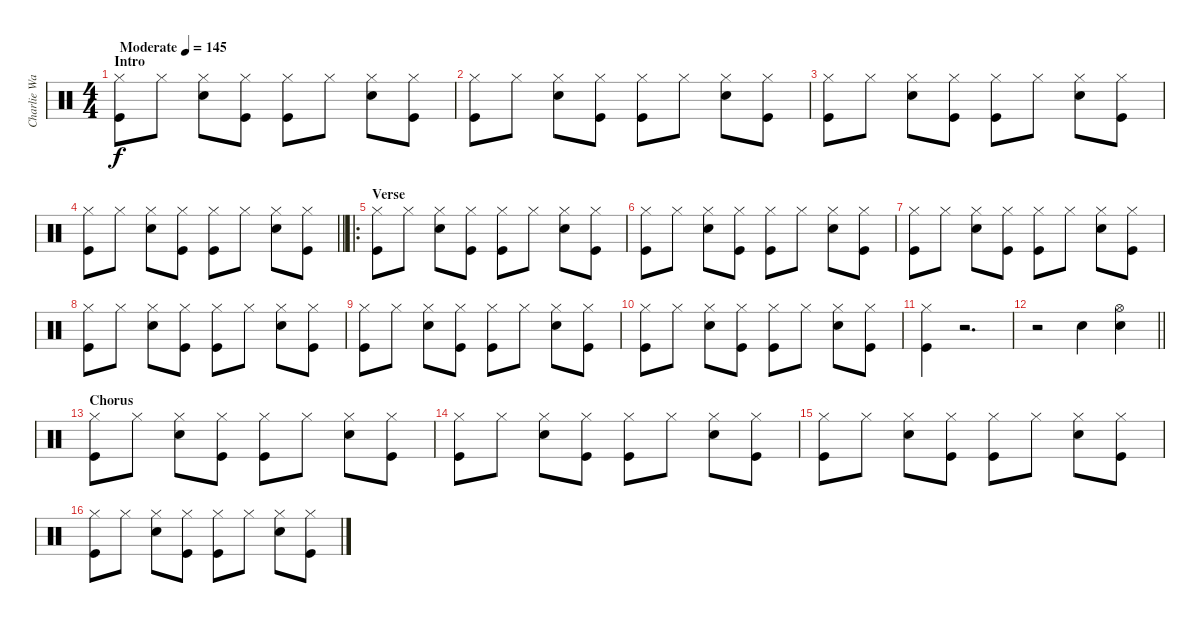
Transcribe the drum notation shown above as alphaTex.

\track ("Charlie Watts" "Charlie Wa") {instrument percussion}
\staff {score}
\articulation defaults
\ts (4 4)
\section ("" "Intro")
\tempo (145 "Moderate")
\clef neutral
\ks c
("Hi-Hat (closed)" "Kick (hit)").8{dy f} "Hi-Hat (closed)".8 ("Hi-Hat (closed)" "Snare (hit) 2").8 ("Hi-Hat (closed)" "Kick (hit)").8 ("Hi-Hat (closed)" "Kick (hit)").8 "Hi-Hat (closed)".8 ("Hi-Hat (closed)" "Snare (hit) 2").8 ("Hi-Hat (closed)" "Kick (hit)").8 |
("Hi-Hat (closed)" "Kick (hit)").8 "Hi-Hat (closed)".8 ("Hi-Hat (closed)" "Snare (hit) 2").8 ("Hi-Hat (closed)" "Kick (hit)").8 ("Hi-Hat (closed)" "Kick (hit)").8 "Hi-Hat (closed)".8 ("Hi-Hat (closed)" "Snare (hit) 2").8 ("Hi-Hat (closed)" "Kick (hit)").8 |
("Hi-Hat (closed)" "Kick (hit)").8 "Hi-Hat (closed)".8 ("Hi-Hat (closed)" "Snare (hit) 2").8 ("Hi-Hat (closed)" "Kick (hit)").8 ("Hi-Hat (closed)" "Kick (hit)").8 "Hi-Hat (closed)".8 ("Hi-Hat (closed)" "Snare (hit) 2").8 ("Hi-Hat (closed)" "Kick (hit)").8 |
\barLineRight lightlight
("Hi-Hat (closed)" "Kick (hit)").8 "Hi-Hat (closed)".8 ("Hi-Hat (closed)" "Snare (hit) 2").8 ("Hi-Hat (closed)" "Kick (hit)").8 ("Hi-Hat (closed)" "Kick (hit)").8 "Hi-Hat (closed)".8 ("Hi-Hat (closed)" "Snare (hit) 2").8 ("Hi-Hat (closed)" "Kick (hit)").8 |
\ro
\section ("" "Verse")
("Hi-Hat (closed)" "Kick (hit)").8 "Hi-Hat (closed)".8 ("Hi-Hat (closed)" "Snare (hit) 2").8 ("Hi-Hat (closed)" "Kick (hit)").8 ("Hi-Hat (closed)" "Kick (hit)").8 "Hi-Hat (closed)".8 ("Hi-Hat (closed)" "Snare (hit) 2").8 ("Hi-Hat (closed)" "Kick (hit)").8 |
("Hi-Hat (closed)" "Kick (hit)").8 "Hi-Hat (closed)".8 ("Hi-Hat (closed)" "Snare (hit) 2").8 ("Hi-Hat (closed)" "Kick (hit)").8 ("Hi-Hat (closed)" "Kick (hit)").8 "Hi-Hat (closed)".8 ("Hi-Hat (closed)" "Snare (hit) 2").8 ("Hi-Hat (closed)" "Kick (hit)").8 |
("Hi-Hat (closed)" "Kick (hit)").8 "Hi-Hat (closed)".8 ("Hi-Hat (closed)" "Snare (hit) 2").8 ("Hi-Hat (closed)" "Kick (hit)").8 ("Hi-Hat (closed)" "Kick (hit)").8 "Hi-Hat (closed)".8 ("Hi-Hat (closed)" "Snare (hit) 2").8 ("Hi-Hat (closed)" "Kick (hit)").8 |
("Hi-Hat (closed)" "Kick (hit)").8 "Hi-Hat (closed)".8 ("Hi-Hat (closed)" "Snare (hit) 2").8 ("Hi-Hat (closed)" "Kick (hit)").8 ("Hi-Hat (closed)" "Kick (hit)").8 "Hi-Hat (closed)".8 ("Hi-Hat (closed)" "Snare (hit) 2").8 ("Hi-Hat (closed)" "Kick (hit)").8 |
("Hi-Hat (closed)" "Kick (hit)").8 "Hi-Hat (closed)".8 ("Hi-Hat (closed)" "Snare (hit) 2").8 ("Hi-Hat (closed)" "Kick (hit)").8 ("Hi-Hat (closed)" "Kick (hit)").8 "Hi-Hat (closed)".8 ("Hi-Hat (closed)" "Snare (hit) 2").8 ("Hi-Hat (closed)" "Kick (hit)").8 |
("Hi-Hat (closed)" "Kick (hit)").8 "Hi-Hat (closed)".8 ("Hi-Hat (closed)" "Snare (hit) 2").8 ("Hi-Hat (closed)" "Kick (hit)").8 ("Hi-Hat (closed)" "Kick (hit)").8 "Hi-Hat (closed)".8 ("Hi-Hat (closed)" "Snare (hit) 2").8 ("Hi-Hat (closed)" "Kick (hit)").8 |
("Hi-Hat (closed)" "Kick (hit)").4 r.2{d} |
\barLineRight lightlight
r.2 "Snare (hit) 2".4 ("Hi-Hat (open)" "Snare (hit) 2").4 |
\section ("" "Chorus")
("Hi-Hat (closed)" "Kick (hit)").8 "Hi-Hat (closed)".8 ("Hi-Hat (closed)" "Snare (hit) 2").8 ("Hi-Hat (closed)" "Kick (hit)").8 ("Hi-Hat (closed)" "Kick (hit)").8 "Hi-Hat (closed)".8 ("Hi-Hat (closed)" "Snare (hit) 2").8 ("Hi-Hat (closed)" "Kick (hit)").8 |
("Hi-Hat (closed)" "Kick (hit)").8 "Hi-Hat (closed)".8 ("Hi-Hat (closed)" "Snare (hit) 2").8 ("Hi-Hat (closed)" "Kick (hit)").8 ("Hi-Hat (closed)" "Kick (hit)").8 "Hi-Hat (closed)".8 ("Hi-Hat (closed)" "Snare (hit) 2").8 ("Hi-Hat (closed)" "Kick (hit)").8 |
("Hi-Hat (closed)" "Kick (hit)").8 "Hi-Hat (closed)".8 ("Hi-Hat (closed)" "Snare (hit) 2").8 ("Hi-Hat (closed)" "Kick (hit)").8 ("Hi-Hat (closed)" "Kick (hit)").8 "Hi-Hat (closed)".8 ("Hi-Hat (closed)" "Snare (hit) 2").8 ("Hi-Hat (closed)" "Kick (hit)").8 |
("Hi-Hat (closed)" "Kick (hit)").8 "Hi-Hat (closed)".8 ("Hi-Hat (closed)" "Snare (hit) 2").8 ("Hi-Hat (closed)" "Kick (hit)").8 ("Hi-Hat (closed)" "Kick (hit)").8 "Hi-Hat (closed)".8 ("Hi-Hat (closed)" "Snare (hit) 2").8 ("Hi-Hat (closed)" "Kick (hit)").8
